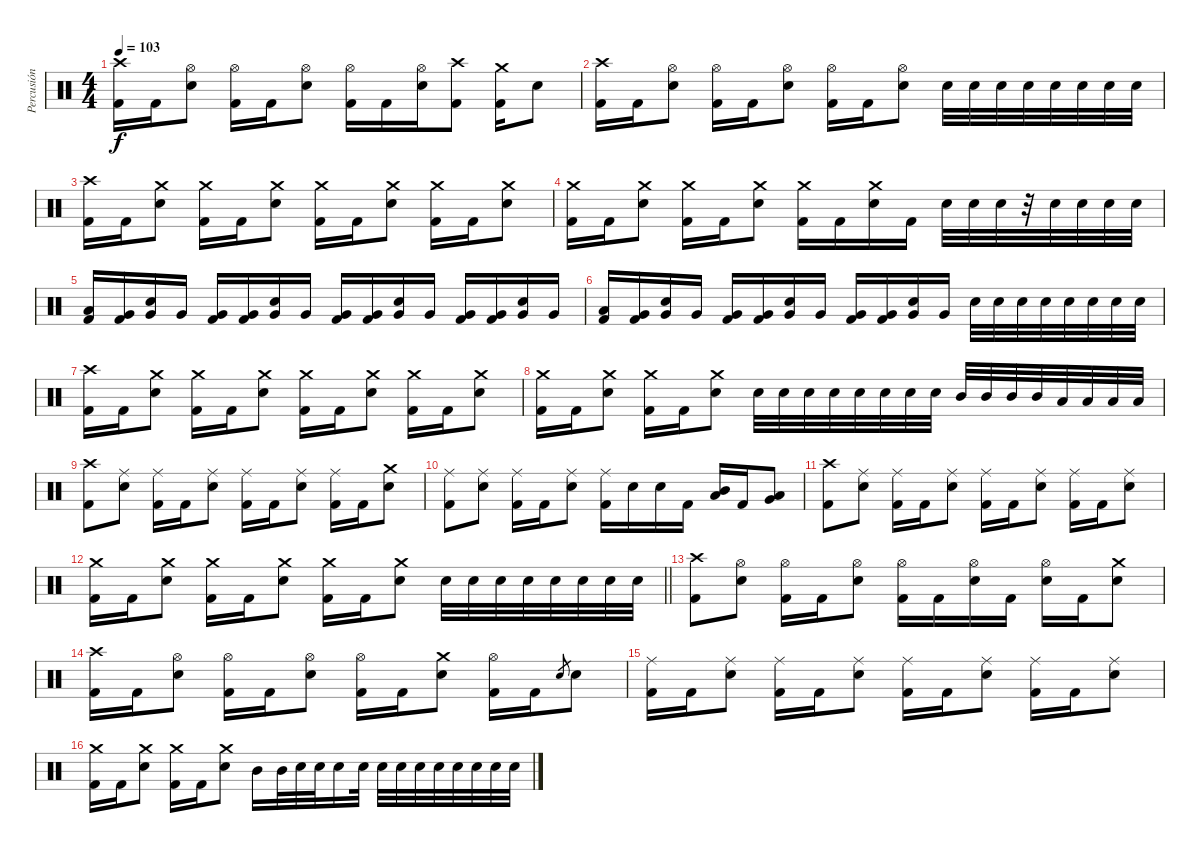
\track ("Percusión" "Percusión") {instrument percussion}
\staff {score}
\articulation defaults
\ts (4 4)
\tempo 103
\clef neutral
\ks c
("Crash high (hit)" "Kick (hit) 2").16{dy f} "Kick (hit) 2".16 ("Hi-Hat (open)" "Snare (hit) 2").8 ("Hi-Hat (open)" "Kick (hit) 2").16 "Kick (hit) 2".16 ("Hi-Hat (open)" "Snare (hit) 2").8 ("Hi-Hat (open)" "Kick (hit) 2").16 "Kick (hit) 2".16 ("Hi-Hat (open)" "Snare (hit) 2").16 ("Crash high (hit)" "Kick (hit) 2").8 ("Crash medium (hit)" "Kick (hit) 2").16 "Snare (hit) 2".8 |
("Crash high (hit)" "Kick (hit) 2").16 "Kick (hit) 2".16 ("Hi-Hat (open)" "Snare (hit) 2").8 ("Hi-Hat (open)" "Kick (hit) 2").16 "Kick (hit) 2".16 ("Hi-Hat (open)" "Snare (hit) 2").8 ("Hi-Hat (open)" "Kick (hit) 2").16 "Kick (hit) 2".16 ("Hi-Hat (open)" "Snare (hit) 2").8 "Snare (hit) 2".32 "Snare (hit) 2".32 "Snare (hit) 2".32 "Snare (hit) 2".32 "Snare (hit) 2".32 "Snare (hit) 2".32 "Snare (hit) 2".32 "Snare (hit) 2".32 |
("Crash high (hit)" "Kick (hit) 2").16 "Kick (hit) 2".16 ("Crash medium (hit)" "Snare (hit) 2").8 ("Crash medium (hit)" "Kick (hit) 2").16 "Kick (hit) 2".16 ("Crash medium (hit)" "Snare (hit) 2").8 ("Crash medium (hit)" "Kick (hit) 2").16 "Kick (hit) 2".16 ("Crash medium (hit)" "Snare (hit) 2").8 ("Crash medium (hit)" "Kick (hit) 2").16 "Kick (hit) 2".16 ("Crash medium (hit)" "Snare (hit) 2").8 |
("Crash medium (hit)" "Kick (hit) 2").16 "Kick (hit) 2".16 ("Crash medium (hit)" "Snare (hit) 2").8 ("Crash medium (hit)" "Kick (hit) 2").16 "Kick (hit) 2".16 ("Crash medium (hit)" "Snare (hit) 2").8 ("Crash medium (hit)" "Kick (hit) 2").16 "Kick (hit) 2".16 ("Crash medium (hit)" "Snare (hit) 2").16 "Kick (hit) 2".16 "Snare (hit) 2".32 "Snare (hit) 2".32 "Snare (hit) 2".32 r.32 "Snare (hit) 2".32 "Snare (hit) 2".32 "Snare (hit) 2".32 "Snare (hit) 2".32 |
("Low Tom (hit)" "Kick (hit) 2").16 ("Very Low Tom (hit)" "Kick (hit) 2").16 ("Very Low Tom (hit)" "Snare (hit) 2").16 "Very Low Tom (hit)".16 ("Very Low Tom (hit)" "Kick (hit) 2").16 ("Very Low Tom (hit)" "Kick (hit) 2").16 ("Very Low Tom (hit)" "Snare (hit) 2").16 "Very Low Tom (hit)".16 ("Very Low Tom (hit)" "Kick (hit) 2").16 ("Very Low Tom (hit)" "Kick (hit) 2").16 ("Very Low Tom (hit)" "Snare (hit) 2").16 "Very Low Tom (hit)".16 ("Very Low Tom (hit)" "Kick (hit) 2").16 ("Very Low Tom (hit)" "Kick (hit) 2").16 ("Very Low Tom (hit)" "Snare (hit) 2").16 "Very Low Tom (hit)".16 |
("Low Tom (hit)" "Kick (hit) 2").16 ("Very Low Tom (hit)" "Kick (hit) 2").16 ("Very Low Tom (hit)" "Snare (hit) 2").16 "Very Low Tom (hit)".16 ("Very Low Tom (hit)" "Kick (hit) 2").16 ("Very Low Tom (hit)" "Kick (hit) 2").16 ("Very Low Tom (hit)" "Snare (hit) 2").16 "Very Low Tom (hit)".16 ("Very Low Tom (hit)" "Kick (hit) 2").16 ("Very Low Tom (hit)" "Kick (hit) 2").16 ("Very Low Tom (hit)" "Snare (hit) 2").16 "Very Low Tom (hit)".16 "Snare (hit) 2".32 "Snare (hit) 2".32 "Snare (hit) 2".32 "Snare (hit) 2".32 "Snare (hit) 2".32 "Snare (hit) 2".32 "Snare (hit) 2".32 "Snare (hit) 2".32 |
("Crash high (hit)" "Kick (hit) 2").16 "Kick (hit) 2".16 ("Crash medium (hit)" "Snare (hit) 2").8 ("Crash medium (hit)" "Kick (hit) 2").16 "Kick (hit) 2".16 ("Crash medium (hit)" "Snare (hit) 2").8 ("Crash medium (hit)" "Kick (hit) 2").16 "Kick (hit) 2".16 ("Crash medium (hit)" "Snare (hit) 2").8 ("Crash medium (hit)" "Kick (hit) 2").16 "Kick (hit) 2".16 ("Crash medium (hit)" "Snare (hit) 2").8 |
("Crash medium (hit)" "Kick (hit) 2").16 "Kick (hit) 2".16 ("Crash medium (hit)" "Snare (hit) 2").8 ("Crash medium (hit)" "Kick (hit) 2").16 "Kick (hit) 2".16 ("Crash medium (hit)" "Snare (hit) 2").8 "Snare (hit) 2".32 "Snare (hit) 2".32 "Snare (hit) 2".32 "Snare (hit) 2".32 "Snare (hit) 2".32 "Snare (hit) 2".32 "Snare (hit) 2".32 "Snare (hit) 2".32 "Mid Tom (hit)".32 "Mid Tom (hit)".32 "Mid Tom (hit)".32 "Mid Tom (hit)".32 "Low Tom (hit)".32 "Low Tom (hit)".32 "Low Tom (hit)".32 "Low Tom (hit)".32 |
("Crash high (hit)" "Kick (hit) 2").8 ("Ride (middle)" "Snare (hit) 2").8 ("Ride (middle)" "Kick (hit) 2").16 "Kick (hit) 2".16 ("Ride (middle)" "Snare (hit) 2").8 ("Ride (middle)" "Kick (hit) 2").16 "Kick (hit) 2".16 ("Ride (middle)" "Snare (hit) 2").8 ("Ride (middle)" "Kick (hit) 2").16 "Kick (hit) 2".16 ("Crash medium (hit)" "Snare (hit) 2").8 |
("Ride (middle)" "Kick (hit) 2").8 ("Ride (middle)" "Snare (hit) 2").8 ("Ride (middle)" "Kick (hit) 2").16 "Kick (hit) 2".16 ("Ride (middle)" "Snare (hit) 2").8 ("Ride (middle)" "Kick (hit) 2").16 "Snare (hit) 2".16 "Snare (hit) 2".16 "Kick (hit) 2".16 ("Mid Tom (hit)" "Low Tom (hit)").16 "Kick (hit) 2".16 ("Low Tom (hit)" "Very Low Tom (hit)").8 |
("Crash high (hit)" "Kick (hit) 2").8 ("Ride (middle)" "Snare (hit) 2").8 ("Ride (middle)" "Kick (hit) 2").16 "Kick (hit) 2".16 ("Ride (middle)" "Snare (hit) 2").8 ("Ride (middle)" "Kick (hit) 2").16 "Kick (hit) 2".16 ("Ride (middle)" "Snare (hit) 2").8 ("Ride (middle)" "Kick (hit) 2").16 "Kick (hit) 2".16 ("Ride (middle)" "Snare (hit) 2").8 |
\barLineRight lightlight
("Crash medium (hit)" "Kick (hit) 2").16 "Kick (hit) 2".16 ("Crash medium (hit)" "Snare (hit) 2").8 ("Crash medium (hit)" "Kick (hit) 2").16 "Kick (hit) 2".16 ("Crash medium (hit)" "Snare (hit) 2").8 ("Crash medium (hit)" "Kick (hit) 2").16 "Kick (hit) 2".16 ("Crash medium (hit)" "Snare (hit) 2").8 "Snare (hit) 2".32 "Snare (hit) 2".32 "Snare (hit) 2".32 "Snare (hit) 2".32 "Snare (hit) 2".32 "Snare (hit) 2".32 "Snare (hit) 2".32 "Snare (hit) 2".32 |
("Crash high (hit)" "Kick (hit) 2").8 ("Hi-Hat (open)" "Snare (hit) 2").8 ("Hi-Hat (open)" "Kick (hit) 2").16 "Kick (hit) 2".16 ("Hi-Hat (open)" "Snare (hit) 2").8 ("Hi-Hat (open)" "Kick (hit) 2").16 "Kick (hit) 2".16 ("Hi-Hat (open)" "Snare (hit) 2").16 "Kick (hit) 2".16 ("Hi-Hat (open)" "Snare (hit) 2").16 "Kick (hit) 2".16 ("Crash medium (hit)" "Snare (hit) 2").8 |
("Crash high (hit)" "Kick (hit) 2").16 "Kick (hit) 2".16 ("Hi-Hat (open)" "Snare (hit) 2").8 ("Hi-Hat (open)" "Kick (hit) 2").16 "Kick (hit) 2".16 ("Hi-Hat (open)" "Snare (hit) 2").8 ("Hi-Hat (open)" "Kick (hit) 2").16 "Kick (hit) 2".16 ("Crash medium (hit)" "Snare (hit) 2").8 ("Hi-Hat (open)" "Kick (hit) 2").16 "Kick (hit) 2".16 "Snare (hit) 2".8{gr} "Snare (hit) 2".8 |
("Ride (middle)" "Kick (hit) 2").16 "Kick (hit) 2".16 ("Ride (middle)" "Snare (hit) 2").8 ("Ride (middle)" "Kick (hit) 2").16 "Kick (hit) 2".16 ("Ride (middle)" "Snare (hit) 2").8 ("Ride (middle)" "Kick (hit) 2").16 "Kick (hit) 2".16 ("Ride (middle)" "Snare (hit) 2").8 ("Ride (middle)" "Kick (hit) 2").16 "Kick (hit) 2".16 ("Ride (middle)" "Snare (hit) 2").8 |
("Crash medium (hit)" "Kick (hit) 2").16 "Kick (hit) 2".16 ("Crash medium (hit)" "Snare (hit) 2").8 ("Crash medium (hit)" "Kick (hit) 2").16 "Kick (hit) 2".16 ("Crash medium (hit)" "Snare (hit) 2").8 "Mid Tom (hit)".16 "Mid Tom (hit)".32 "Snare (hit) 2".32 "Snare (hit) 2".32 "Snare (hit) 2".16 "Snare (hit) 2".32 "Snare (hit) 2".32 "Snare (hit) 2".32 "Snare (hit) 2".32 "Snare (hit) 2".32 "Snare (hit) 2".32 "Snare (hit) 2".32 "Snare (hit) 2".32 "Snare (hit) 2".32
